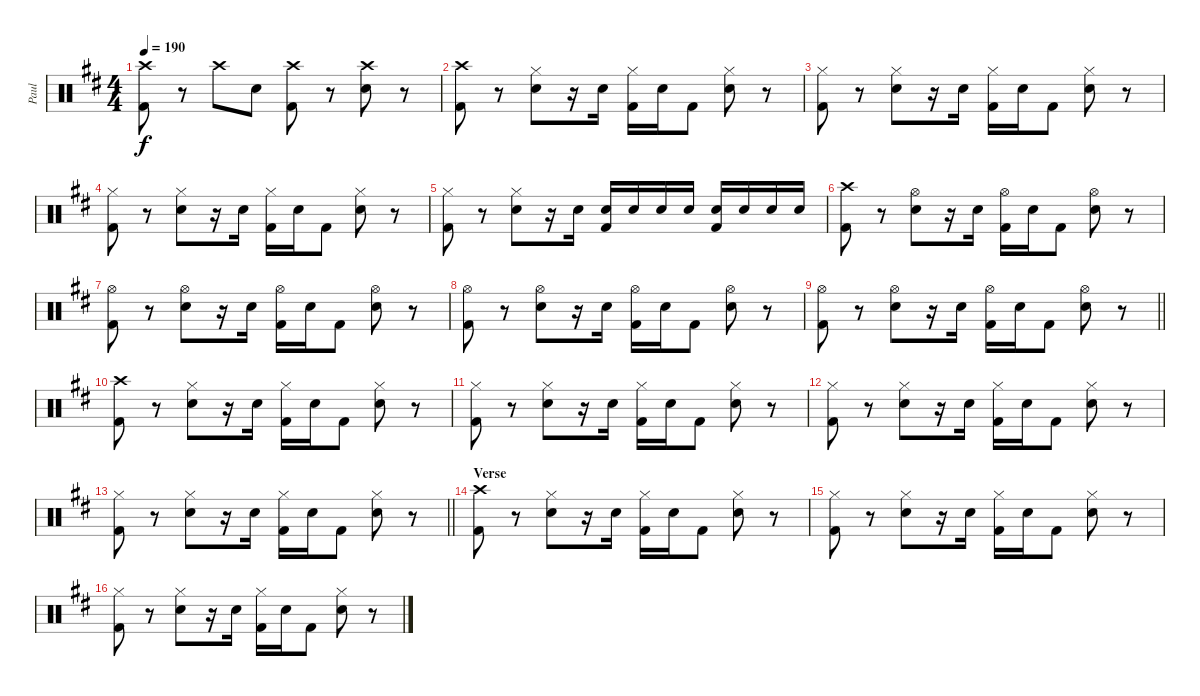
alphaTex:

\track ("Paul" "Paul") {instrument percussion}
\staff {score}
\articulation defaults
\ts (4 4)
\tempo 190
\clef neutral
\ks d
("Crash high (hit)" "Kick (hit) 2").8{dy f} r.8 "Crash high (hit)".8 "Electric Snare (hit)".8 ("Crash high (hit)" "Kick (hit) 2").8 r.8 ("Crash high (hit)" "Electric Snare (hit)").8 r.8 |
("Crash high (hit)" "Kick (hit) 2").8 r.8 ("Hi-Hat (closed)" "Electric Snare (hit)").8 r.16 "Electric Snare (hit)".16 ("Hi-Hat (closed)" "Kick (hit) 2").16 "Electric Snare (hit)".16 "Kick (hit) 2".8 ("Hi-Hat (closed)" "Electric Snare (hit)").8 r.8 |
("Hi-Hat (closed)" "Kick (hit) 2").8 r.8 ("Hi-Hat (closed)" "Electric Snare (hit)").8 r.16 "Electric Snare (hit)".16 ("Hi-Hat (closed)" "Kick (hit) 2").16 "Electric Snare (hit)".16 "Kick (hit) 2".8 ("Hi-Hat (closed)" "Electric Snare (hit)").8 r.8 |
("Hi-Hat (closed)" "Kick (hit) 2").8 r.8 ("Hi-Hat (closed)" "Electric Snare (hit)").8 r.16 "Electric Snare (hit)".16 ("Hi-Hat (closed)" "Kick (hit) 2").16 "Electric Snare (hit)".16 "Kick (hit) 2".8 ("Hi-Hat (closed)" "Electric Snare (hit)").8 r.8 |
("Hi-Hat (closed)" "Kick (hit) 2").8 r.8 ("Hi-Hat (closed)" "Electric Snare (hit)").8 r.16 "Electric Snare (hit)".16 ("Electric Snare (hit)" "Kick (hit) 2").16 "Electric Snare (hit)".16 "Electric Snare (hit)".16 "Electric Snare (hit)".16 ("Electric Snare (hit)" "Kick (hit) 2").16 "Electric Snare (hit)".16 "Electric Snare (hit)".16 "Electric Snare (hit)".16 |
("Crash high (hit)" "Kick (hit) 2").8 r.8 ("Hi-Hat (open)" "Electric Snare (hit)").8 r.16 "Electric Snare (hit)".16 ("Hi-Hat (open)" "Kick (hit) 2").16 "Electric Snare (hit)".16 "Kick (hit) 2".8 ("Hi-Hat (open)" "Electric Snare (hit)").8 r.8 |
("Hi-Hat (open)" "Kick (hit) 2").8 r.8 ("Hi-Hat (open)" "Electric Snare (hit)").8 r.16 "Electric Snare (hit)".16 ("Hi-Hat (open)" "Kick (hit) 2").16 "Electric Snare (hit)".16 "Kick (hit) 2".8 ("Hi-Hat (open)" "Electric Snare (hit)").8 r.8 |
("Hi-Hat (open)" "Kick (hit) 2").8 r.8 ("Hi-Hat (open)" "Electric Snare (hit)").8 r.16 "Electric Snare (hit)".16 ("Hi-Hat (open)" "Kick (hit) 2").16 "Electric Snare (hit)".16 "Kick (hit) 2".8 ("Hi-Hat (open)" "Electric Snare (hit)").8 r.8 |
\barLineRight lightlight
("Hi-Hat (open)" "Kick (hit) 2").8 r.8 ("Hi-Hat (open)" "Electric Snare (hit)").8 r.16 "Electric Snare (hit)".16 ("Hi-Hat (open)" "Kick (hit) 2").16 "Electric Snare (hit)".16 "Kick (hit) 2".8 ("Hi-Hat (open)" "Electric Snare (hit)").8 r.8 |
("Crash high (hit)" "Kick (hit) 2").8 r.8 ("Hi-Hat (closed)" "Electric Snare (hit)").8 r.16 "Electric Snare (hit)".16 ("Hi-Hat (closed)" "Kick (hit) 2").16 "Electric Snare (hit)".16 "Kick (hit) 2".8 ("Hi-Hat (closed)" "Electric Snare (hit)").8 r.8 |
("Hi-Hat (closed)" "Kick (hit) 2").8 r.8 ("Hi-Hat (closed)" "Electric Snare (hit)").8 r.16 "Electric Snare (hit)".16 ("Hi-Hat (closed)" "Kick (hit) 2").16 "Electric Snare (hit)".16 "Kick (hit) 2".8 ("Hi-Hat (closed)" "Electric Snare (hit)").8 r.8 |
("Hi-Hat (closed)" "Kick (hit) 2").8 r.8 ("Hi-Hat (closed)" "Electric Snare (hit)").8 r.16 "Electric Snare (hit)".16 ("Hi-Hat (closed)" "Kick (hit) 2").16 "Electric Snare (hit)".16 "Kick (hit) 2".8 ("Hi-Hat (closed)" "Electric Snare (hit)").8 r.8 |
\barLineRight lightlight
("Hi-Hat (closed)" "Kick (hit) 2").8 r.8 ("Hi-Hat (closed)" "Electric Snare (hit)").8 r.16 "Electric Snare (hit)".16 ("Hi-Hat (closed)" "Kick (hit) 2").16 "Electric Snare (hit)".16 "Kick (hit) 2".8 ("Hi-Hat (closed)" "Electric Snare (hit)").8 r.8 |
\section ("" "Verse")
("Crash high (hit)" "Kick (hit) 2").8 r.8 ("Hi-Hat (closed)" "Electric Snare (hit)").8 r.16 "Electric Snare (hit)".16 ("Hi-Hat (closed)" "Kick (hit) 2").16 "Electric Snare (hit)".16 "Kick (hit) 2".8 ("Hi-Hat (closed)" "Electric Snare (hit)").8 r.8 |
("Hi-Hat (closed)" "Kick (hit) 2").8 r.8 ("Hi-Hat (closed)" "Electric Snare (hit)").8 r.16 "Electric Snare (hit)".16 ("Hi-Hat (closed)" "Kick (hit) 2").16 "Electric Snare (hit)".16 "Kick (hit) 2".8 ("Hi-Hat (closed)" "Electric Snare (hit)").8 r.8 |
("Hi-Hat (closed)" "Kick (hit) 2").8 r.8 ("Hi-Hat (closed)" "Electric Snare (hit)").8 r.16 "Electric Snare (hit)".16 ("Hi-Hat (closed)" "Kick (hit) 2").16 "Electric Snare (hit)".16 "Kick (hit) 2".8 ("Hi-Hat (closed)" "Electric Snare (hit)").8 r.8
